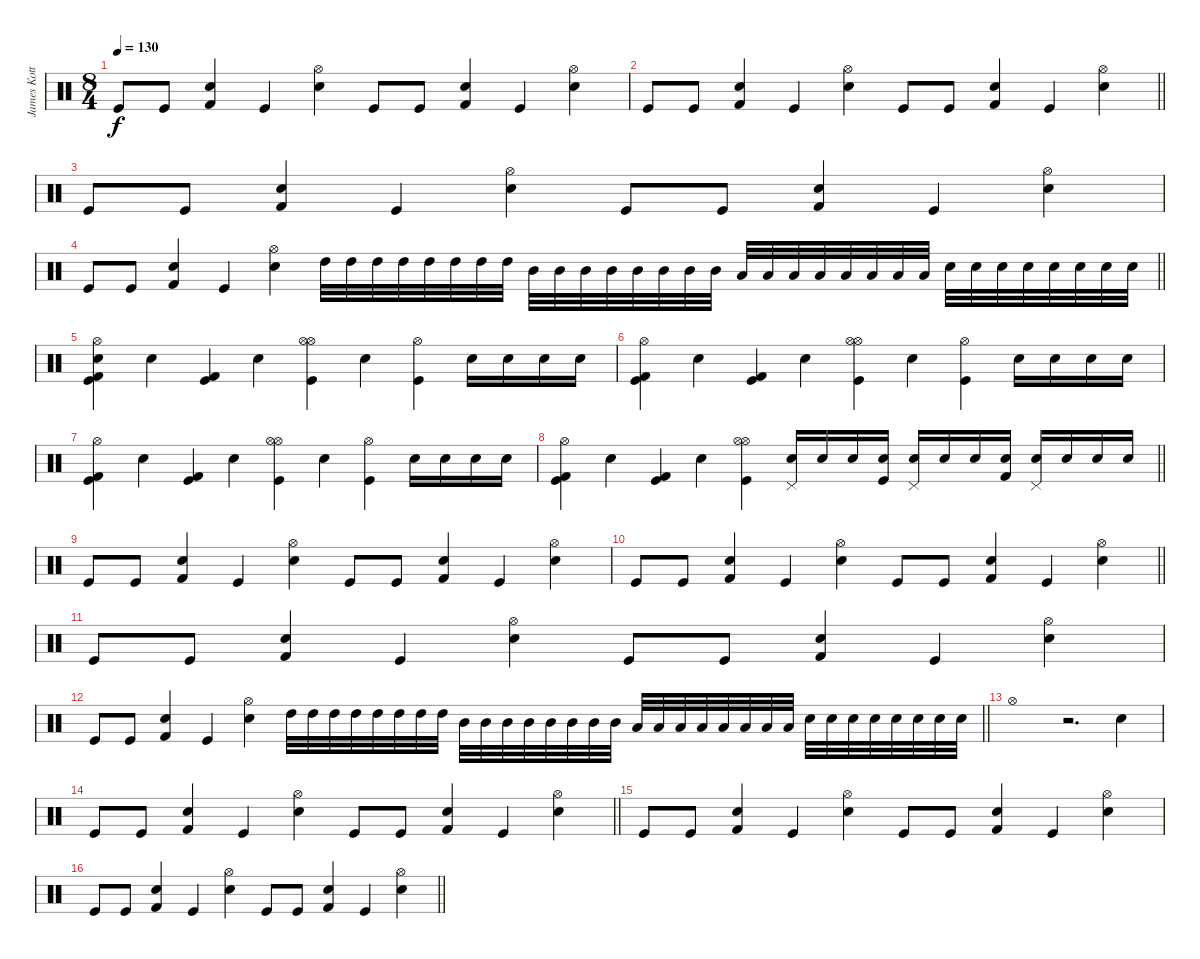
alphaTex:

\track ("James Kottak" "James Kott") {instrument percussion}
\staff {score}
\articulation defaults
\ts (8 4)
\tempo 130
\clef neutral
\ks c "Kick (hit)".8{dy f} "Kick (hit)".8
("Kick (hit) 2" "Snare (hit) 2").4 "Kick (hit)".4 ("Hi-Hat (open)" "Snare (hit) 2").4 "Kick (hit)".8 "Kick (hit)".8 ("Kick (hit) 2" "Snare (hit) 2").4 "Kick (hit)".4 ("Hi-Hat (open)" "Snare (hit) 2").4 |
\barLineRight lightlight "Kick (hit)".8 "Kick (hit)".8
("Kick (hit) 2" "Snare (hit) 2").4 "Kick (hit)".4 ("Hi-Hat (open)" "Snare (hit) 2").4 "Kick (hit)".8 "Kick (hit)".8 ("Kick (hit) 2" "Snare (hit) 2").4 "Kick (hit)".4 ("Hi-Hat (open)" "Snare (hit) 2").4 |
"Kick (hit)".8 "Kick (hit)".8 ("Kick (hit) 2" "Snare (hit) 2").4 "Kick (hit)".4 ("Hi-Hat (open)" "Snare (hit) 2").4 "Kick (hit)".8 "Kick (hit)".8 ("Kick (hit) 2" "Snare (hit) 2").4 "Kick (hit)".4 ("Hi-Hat (open)" "Snare (hit) 2").4 |
\barLineRight lightlight "Kick (hit)".8 "Kick (hit)".8
("Kick (hit) 2" "Snare (hit) 2").4 "Kick (hit)".4 ("Hi-Hat (open)" "Snare (hit) 2").4 "High Tom (hit)".32 "High Tom (hit)".32 "High Tom (hit)".32 "High Tom (hit)".32 "High Tom (hit)".32 "High Tom (hit)".32 "High Tom (hit)".32 "High Tom (hit)".32 "Mid Tom (hit)".32 "Mid Tom (hit)".32 "Mid Tom (hit)".32 "Mid Tom (hit)".32 "Mid Tom (hit)".32 "Mid Tom (hit)".32 "Mid Tom (hit)".32 "Mid Tom (hit)".32 "Low Tom (hit)".32 "Low Tom (hit)".32 "Low Tom (hit)".32 "Low Tom (hit)".32 "Low Tom (hit)".32 "Low Tom (hit)".32 "Low Tom (hit)".32 "Low Tom (hit)".32 "Snare (hit) 2".32 "Snare (hit) 2".32 "Snare (hit) 2".32 "Snare (hit) 2".32 "Snare (hit) 2".32 "Snare (hit) 2".32 "Snare (hit) 2".32 "Snare (hit) 2".32 |
\section ("" "")
("Hi-Hat (open)" "Kick (hit)" "Kick (hit) 2" "Snare (hit) 2").4 "Snare (hit) 2".4 ("Kick (hit) 2" "Kick (hit)").4 "Snare (hit) 2".4 ("Hi-Hat (open)" "Kick (hit)" "Hi-Hat (open)").4 "Snare (hit) 2".4 ("Hi-Hat (open)" "Kick (hit)").4 "Snare (hit) 2".16 "Snare (hit) 2".16 "Snare (hit) 2".16 "Snare (hit) 2".16 |
("Hi-Hat (open)" "Kick (hit)" "Kick (hit) 2").4 "Snare (hit) 2".4 ("Kick (hit) 2" "Kick (hit)").4 "Snare (hit) 2".4 ("Hi-Hat (open)" "Kick (hit)" "Hi-Hat (open)").4 "Snare (hit) 2".4 ("Hi-Hat (open)" "Kick (hit)").4 "Snare (hit) 2".16 "Snare (hit) 2".16 "Snare (hit) 2".16 "Snare (hit) 2".16 |
("Hi-Hat (open)" "Kick (hit)" "Kick (hit) 2").4 "Snare (hit) 2".4 ("Kick (hit) 2" "Kick (hit)").4 "Snare (hit) 2".4 ("Hi-Hat (open)" "Kick (hit)" "Hi-Hat (open)").4 "Snare (hit) 2".4 ("Hi-Hat (open)" "Kick (hit)").4 "Snare (hit) 2".16 "Snare (hit) 2".16 "Snare (hit) 2".16 "Snare (hit) 2".16 |
\barLineRight lightlight
("Hi-Hat (open)" "Kick (hit)" "Kick (hit) 2").4 "Snare (hit) 2".4 ("Kick (hit) 2" "Kick (hit)").4 "Snare (hit) 2".4 ("Hi-Hat (open)" "Kick (hit)" "Hi-Hat (open)").4 ("Pedal Hi-Hat (hit)" "Snare (hit) 2").16 "Snare (hit) 2".16 "Snare (hit) 2".16 ("Snare (hit) 2" "Kick (hit)").16 ("Pedal Hi-Hat (hit)" "Snare (hit) 2").16 "Snare (hit) 2".16 "Snare (hit) 2".16 ("Snare (hit) 2" "Kick (hit) 2").16 ("Pedal Hi-Hat (hit)" "Snare (hit) 2").16 "Snare (hit) 2".16 "Snare (hit) 2".16 "Snare (hit) 2".16 |
\section ("" "")
"Kick (hit)".8 "Kick (hit)".8 ("Kick (hit) 2" "Snare (hit) 2").4 "Kick (hit)".4 ("Hi-Hat (open)" "Snare (hit) 2").4 "Kick (hit)".8 "Kick (hit)".8 ("Kick (hit) 2" "Snare (hit) 2").4 "Kick (hit)".4 ("Hi-Hat (open)" "Snare (hit) 2").4 |
\barLineRight lightlight "Kick (hit)".8 "Kick (hit)".8
("Kick (hit) 2" "Snare (hit) 2").4 "Kick (hit)".4 ("Hi-Hat (open)" "Snare (hit) 2").4 "Kick (hit)".8 "Kick (hit)".8 ("Kick (hit) 2" "Snare (hit) 2").4 "Kick (hit)".4 ("Hi-Hat (open)" "Snare (hit) 2").4 |
"Kick (hit)".8 "Kick (hit)".8 ("Kick (hit) 2" "Snare (hit) 2").4 "Kick (hit)".4 ("Hi-Hat (open)" "Snare (hit) 2").4 "Kick (hit)".8 "Kick (hit)".8 ("Kick (hit) 2" "Snare (hit) 2").4 "Kick (hit)".4 ("Hi-Hat (open)" "Snare (hit) 2").4 |
\barLineRight lightlight "Kick (hit)".8 "Kick (hit)".8
("Kick (hit) 2" "Snare (hit) 2").4 "Kick (hit)".4 ("Hi-Hat (open)" "Snare (hit) 2").4 "High Tom (hit)".32 "High Tom (hit)".32 "High Tom (hit)".32 "High Tom (hit)".32 "High Tom (hit)".32 "High Tom (hit)".32 "High Tom (hit)".32 "High Tom (hit)".32 "Mid Tom (hit)".32 "Mid Tom (hit)".32 "Mid Tom (hit)".32 "Mid Tom (hit)".32 "Mid Tom (hit)".32 "Mid Tom (hit)".32 "Mid Tom (hit)".32 "Mid Tom (hit)".32 "Low Tom (hit)".32 "Low Tom (hit)".32 "Low Tom (hit)".32 "Low Tom (hit)".32 "Low Tom (hit)".32 "Low Tom (hit)".32 "Low Tom (hit)".32 "Low Tom (hit)".32 "Snare (hit) 2".32 "Snare (hit) 2".32 "Snare (hit) 2".32 "Snare (hit) 2".32 "Snare (hit) 2".32 "Snare (hit) 2".32 "Snare (hit) 2".32 "Snare (hit) 2".32 |
\section ("" "")
"Hi-Hat (open)".1 r.2{d} "Snare (hit) 2".4 |
\barLineRight lightlight "Kick (hit)".8 "Kick (hit)".8
("Kick (hit) 2" "Snare (hit) 2").4 "Kick (hit)".4 ("Hi-Hat (open)" "Snare (hit) 2").4 "Kick (hit)".8 "Kick (hit)".8 ("Kick (hit) 2" "Snare (hit) 2").4 "Kick (hit)".4 ("Hi-Hat (open)" "Snare (hit) 2").4 |
"Kick (hit)".8 "Kick (hit)".8 ("Kick (hit) 2" "Snare (hit) 2").4 "Kick (hit)".4 ("Hi-Hat (open)" "Snare (hit) 2").4 "Kick (hit)".8 "Kick (hit)".8 ("Kick (hit) 2" "Snare (hit) 2").4 "Kick (hit)".4 ("Hi-Hat (open)" "Snare (hit) 2").4 |
\barLineRight lightlight "Kick (hit)".8 "Kick (hit)".8
("Kick (hit) 2" "Snare (hit) 2").4 "Kick (hit)".4 ("Hi-Hat (open)" "Snare (hit) 2").4 "Kick (hit)".8 "Kick (hit)".8 ("Kick (hit) 2" "Snare (hit) 2").4 "Kick (hit)".4 ("Hi-Hat (open)" "Snare (hit) 2").4
